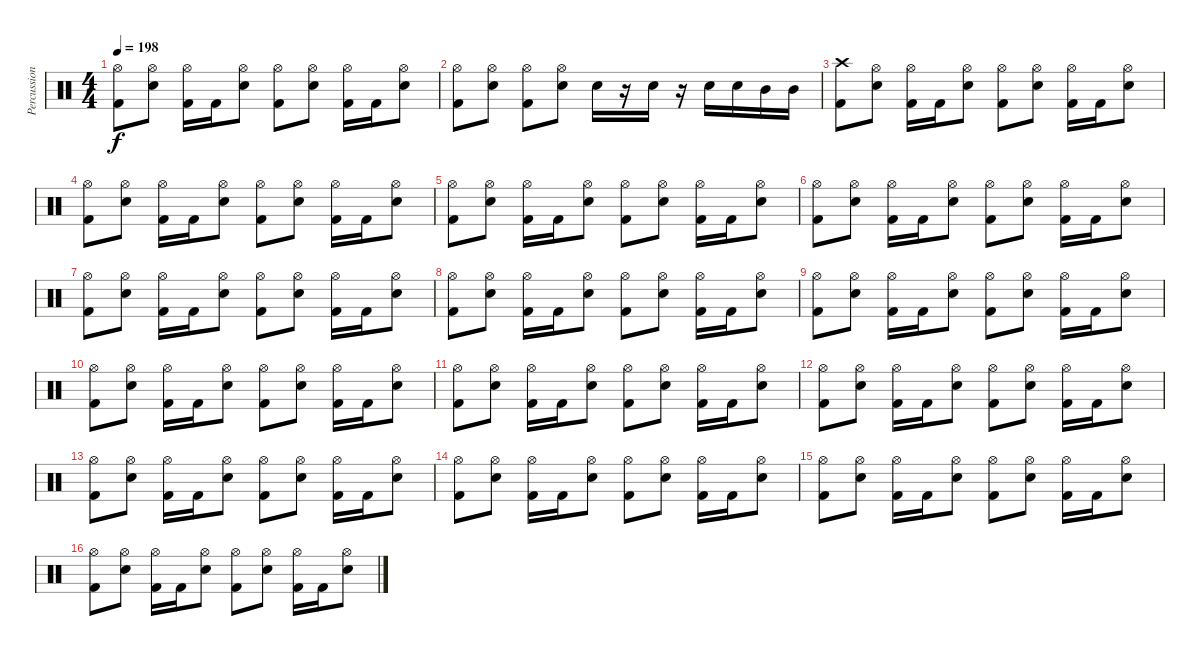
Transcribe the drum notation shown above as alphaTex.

\track ("Percussion" "Percussion") {instrument percussion}
\staff {score}
\articulation defaults
\ts (4 4)
\tempo 198
\clef neutral
\ks c
("Hi-Hat (open)" "Kick (hit) 2").8{dy f} ("Hi-Hat (open)" "Electric Snare (hit)").8 ("Hi-Hat (open)" "Kick (hit) 2").16 "Kick (hit) 2".16 ("Hi-Hat (open)" "Electric Snare (hit)").8 ("Hi-Hat (open)" "Kick (hit) 2").8 ("Hi-Hat (open)" "Electric Snare (hit)").8 ("Hi-Hat (open)" "Kick (hit) 2").16 "Kick (hit) 2".16 ("Hi-Hat (open)" "Electric Snare (hit)").8 |
("Hi-Hat (open)" "Kick (hit) 2").8 ("Hi-Hat (open)" "Electric Snare (hit)").8 ("Hi-Hat (open)" "Kick (hit) 2").8 ("Hi-Hat (open)" "Electric Snare (hit)").8 "Electric Snare (hit)".16 r.16 "Electric Snare (hit)".16 r.16 "Electric Snare (hit)".16 "Electric Snare (hit)".16 "Mid Tom (hit)".16 "Mid Tom (hit)".16 |
("Crash high (hit)" "Kick (hit) 2").8 ("Hi-Hat (open)" "Electric Snare (hit)").8 ("Hi-Hat (open)" "Kick (hit) 2").16 "Kick (hit) 2".16 ("Hi-Hat (open)" "Electric Snare (hit)").8 ("Hi-Hat (open)" "Kick (hit) 2").8 ("Hi-Hat (open)" "Electric Snare (hit)").8 ("Hi-Hat (open)" "Kick (hit) 2").16 "Kick (hit) 2".16 ("Hi-Hat (open)" "Electric Snare (hit)").8 |
("Hi-Hat (open)" "Kick (hit) 2").8 ("Hi-Hat (open)" "Electric Snare (hit)").8 ("Hi-Hat (open)" "Kick (hit) 2").16 "Kick (hit) 2".16 ("Hi-Hat (open)" "Electric Snare (hit)").8 ("Hi-Hat (open)" "Kick (hit) 2").8 ("Hi-Hat (open)" "Electric Snare (hit)").8 ("Hi-Hat (open)" "Kick (hit) 2").16 "Kick (hit) 2".16 ("Hi-Hat (open)" "Electric Snare (hit)").8 |
("Hi-Hat (open)" "Kick (hit) 2").8 ("Hi-Hat (open)" "Electric Snare (hit)").8 ("Hi-Hat (open)" "Kick (hit) 2").16 "Kick (hit) 2".16 ("Hi-Hat (open)" "Electric Snare (hit)").8 ("Hi-Hat (open)" "Kick (hit) 2").8 ("Hi-Hat (open)" "Electric Snare (hit)").8 ("Hi-Hat (open)" "Kick (hit) 2").16 "Kick (hit) 2".16 ("Hi-Hat (open)" "Electric Snare (hit)").8 |
("Hi-Hat (open)" "Kick (hit) 2").8 ("Hi-Hat (open)" "Electric Snare (hit)").8 ("Hi-Hat (open)" "Kick (hit) 2").16 "Kick (hit) 2".16 ("Hi-Hat (open)" "Electric Snare (hit)").8 ("Hi-Hat (open)" "Kick (hit) 2").8 ("Hi-Hat (open)" "Electric Snare (hit)").8 ("Hi-Hat (open)" "Kick (hit) 2").16 "Kick (hit) 2".16 ("Hi-Hat (open)" "Electric Snare (hit)").8 |
("Hi-Hat (open)" "Kick (hit) 2").8 ("Hi-Hat (open)" "Electric Snare (hit)").8 ("Hi-Hat (open)" "Kick (hit) 2").16 "Kick (hit) 2".16 ("Hi-Hat (open)" "Electric Snare (hit)").8 ("Hi-Hat (open)" "Kick (hit) 2").8 ("Hi-Hat (open)" "Electric Snare (hit)").8 ("Hi-Hat (open)" "Kick (hit) 2").16 "Kick (hit) 2".16 ("Hi-Hat (open)" "Electric Snare (hit)").8 |
("Hi-Hat (open)" "Kick (hit) 2").8 ("Hi-Hat (open)" "Electric Snare (hit)").8 ("Hi-Hat (open)" "Kick (hit) 2").16 "Kick (hit) 2".16 ("Hi-Hat (open)" "Electric Snare (hit)").8 ("Hi-Hat (open)" "Kick (hit) 2").8 ("Hi-Hat (open)" "Electric Snare (hit)").8 ("Hi-Hat (open)" "Kick (hit) 2").16 "Kick (hit) 2".16 ("Hi-Hat (open)" "Electric Snare (hit)").8 |
("Hi-Hat (open)" "Kick (hit) 2").8 ("Hi-Hat (open)" "Electric Snare (hit)").8 ("Hi-Hat (open)" "Kick (hit) 2").16 "Kick (hit) 2".16 ("Hi-Hat (open)" "Electric Snare (hit)").8 ("Hi-Hat (open)" "Kick (hit) 2").8 ("Hi-Hat (open)" "Electric Snare (hit)").8 ("Hi-Hat (open)" "Kick (hit) 2").16 "Kick (hit) 2".16 ("Hi-Hat (open)" "Electric Snare (hit)").8 |
("Hi-Hat (open)" "Kick (hit) 2").8 ("Hi-Hat (open)" "Electric Snare (hit)").8 ("Hi-Hat (open)" "Kick (hit) 2").16 "Kick (hit) 2".16 ("Hi-Hat (open)" "Electric Snare (hit)").8 ("Hi-Hat (open)" "Kick (hit) 2").8 ("Hi-Hat (open)" "Electric Snare (hit)").8 ("Hi-Hat (open)" "Kick (hit) 2").16 "Kick (hit) 2".16 ("Hi-Hat (open)" "Electric Snare (hit)").8 |
("Hi-Hat (open)" "Kick (hit) 2").8 ("Hi-Hat (open)" "Electric Snare (hit)").8 ("Hi-Hat (open)" "Kick (hit) 2").16 "Kick (hit) 2".16 ("Hi-Hat (open)" "Electric Snare (hit)").8 ("Hi-Hat (open)" "Kick (hit) 2").8 ("Hi-Hat (open)" "Electric Snare (hit)").8 ("Hi-Hat (open)" "Kick (hit) 2").16 "Kick (hit) 2".16 ("Hi-Hat (open)" "Electric Snare (hit)").8 |
("Hi-Hat (open)" "Kick (hit) 2").8 ("Hi-Hat (open)" "Electric Snare (hit)").8 ("Hi-Hat (open)" "Kick (hit) 2").16 "Kick (hit) 2".16 ("Hi-Hat (open)" "Electric Snare (hit)").8 ("Hi-Hat (open)" "Kick (hit) 2").8 ("Hi-Hat (open)" "Electric Snare (hit)").8 ("Hi-Hat (open)" "Kick (hit) 2").16 "Kick (hit) 2".16 ("Hi-Hat (open)" "Electric Snare (hit)").8 |
("Hi-Hat (open)" "Kick (hit) 2").8 ("Hi-Hat (open)" "Electric Snare (hit)").8 ("Hi-Hat (open)" "Kick (hit) 2").16 "Kick (hit) 2".16 ("Hi-Hat (open)" "Electric Snare (hit)").8 ("Hi-Hat (open)" "Kick (hit) 2").8 ("Hi-Hat (open)" "Electric Snare (hit)").8 ("Hi-Hat (open)" "Kick (hit) 2").16 "Kick (hit) 2".16 ("Hi-Hat (open)" "Electric Snare (hit)").8 |
("Hi-Hat (open)" "Kick (hit) 2").8 ("Hi-Hat (open)" "Electric Snare (hit)").8 ("Hi-Hat (open)" "Kick (hit) 2").16 "Kick (hit) 2".16 ("Hi-Hat (open)" "Electric Snare (hit)").8 ("Hi-Hat (open)" "Kick (hit) 2").8 ("Hi-Hat (open)" "Electric Snare (hit)").8 ("Hi-Hat (open)" "Kick (hit) 2").16 "Kick (hit) 2".16 ("Hi-Hat (open)" "Electric Snare (hit)").8 |
("Hi-Hat (open)" "Kick (hit) 2").8 ("Hi-Hat (open)" "Electric Snare (hit)").8 ("Hi-Hat (open)" "Kick (hit) 2").16 "Kick (hit) 2".16 ("Hi-Hat (open)" "Electric Snare (hit)").8 ("Hi-Hat (open)" "Kick (hit) 2").8 ("Hi-Hat (open)" "Electric Snare (hit)").8 ("Hi-Hat (open)" "Kick (hit) 2").16 "Kick (hit) 2".16 ("Hi-Hat (open)" "Electric Snare (hit)").8 |
("Hi-Hat (open)" "Kick (hit) 2").8 ("Hi-Hat (open)" "Electric Snare (hit)").8 ("Hi-Hat (open)" "Kick (hit) 2").16 "Kick (hit) 2".16 ("Hi-Hat (open)" "Electric Snare (hit)").8 ("Hi-Hat (open)" "Kick (hit) 2").8 ("Hi-Hat (open)" "Electric Snare (hit)").8 ("Hi-Hat (open)" "Kick (hit) 2").16 "Kick (hit) 2".16 ("Hi-Hat (open)" "Electric Snare (hit)").8
